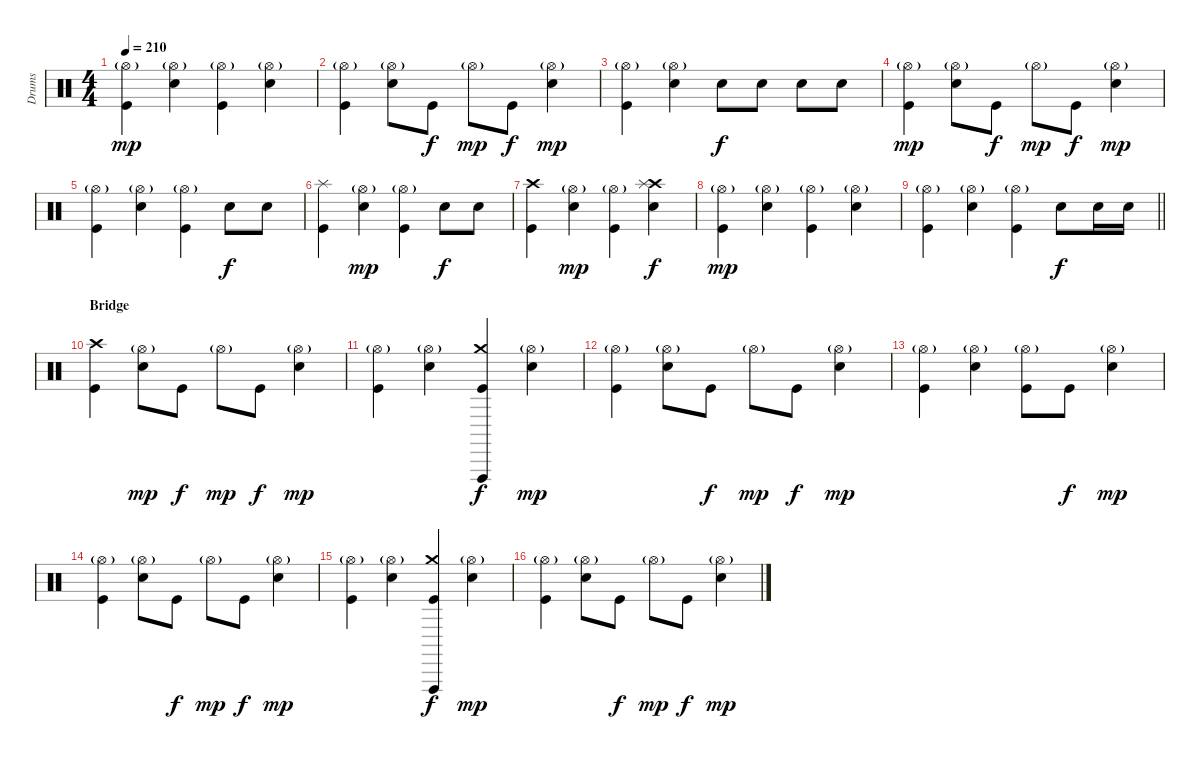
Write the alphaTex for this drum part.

\track ("Drums" "Drums") {instrument percussion}
\staff {score}
\articulation defaults
\ts (4 4)
\tempo 210
\clef neutral
\ks c
("Hi-Hat (open)"{g} "Kick (hit)").4{dy mp} ("Hi-Hat (open)"{g} "Snare (hit) 2").4 ("Hi-Hat (open)"{g} "Kick (hit)").4 ("Hi-Hat (open)"{g} "Snare (hit) 2").4 |
("Hi-Hat (open)"{g} "Kick (hit)").4 ("Hi-Hat (open)"{g} "Snare (hit) 2").8 "Kick (hit)".8{dy f} "Hi-Hat (open)"{g}.8{dy mp} "Kick (hit)".8{dy f} ("Hi-Hat (open)"{g} "Snare (hit) 2").4{dy mp} |
("Hi-Hat (open)"{g} "Kick (hit)").4 ("Hi-Hat (open)"{g} "Snare (hit) 2").4 "Snare (hit) 2".8{dy f} "Snare (hit) 2".8 "Snare (hit) 2".8 "Snare (hit) 2".8 |
("Hi-Hat (open)"{g} "Kick (hit)").4{dy mp} ("Hi-Hat (open)"{g} "Snare (hit) 2").8 "Kick (hit)".8{dy f} "Hi-Hat (open)"{g}.8{dy mp} "Kick (hit)".8{dy f} ("Hi-Hat (open)"{g} "Snare (hit) 2").4{dy mp} |
("Hi-Hat (open)"{g} "Kick (hit)").4 ("Hi-Hat (open)"{g} "Snare (hit) 2").4 ("Hi-Hat (open)"{g} "Kick (hit)").4 "Snare (hit) 2".8{dy f} "Snare (hit) 2".8 |
("Splash (hit)" "Kick (hit)").4 ("Hi-Hat (open)"{g} "Snare (hit) 2").4{dy mp} ("Hi-Hat (open)"{g} "Kick (hit)").4 "Snare (hit) 2".8{dy f} "Snare (hit) 2".8 |
("Crash high (hit)" "Kick (hit)").4 ("Hi-Hat (open)"{g} "Snare (hit) 2").4{dy mp} ("Hi-Hat (open)"{g} "Kick (hit)").4 ("Crash high (hit)" "Splash (hit)" "Snare (hit) 2").4{dy f} |
("Hi-Hat (open)"{g} "Kick (hit)").4{dy mp} ("Hi-Hat (open)"{g} "Snare (hit) 2").4 ("Hi-Hat (open)"{g} "Kick (hit)").4 ("Hi-Hat (open)"{g} "Snare (hit) 2").4 |
\barLineRight lightlight
("Hi-Hat (open)"{g} "Kick (hit)").4 ("Hi-Hat (open)"{g} "Snare (hit) 2").4 ("Hi-Hat (open)"{g} "Kick (hit)").4 "Snare (hit) 2".8{dy f} "Snare (hit) 2".16 "Snare (hit) 2".16 |
\section ("" "Bridge")
("Crash high (hit)" "Kick (hit)").4 ("Hi-Hat (open)"{g} "Snare (hit) 2").8{dy mp} "Kick (hit)".8{dy f} "Hi-Hat (open)"{g}.8{dy mp} "Kick (hit)".8{dy f} ("Hi-Hat (open)"{g} "Snare (hit) 2").4{dy mp} |
("Hi-Hat (open)"{g} "Kick (hit)").4 ("Hi-Hat (open)"{g} "Snare (hit) 2").4 ("Crash medium (hit)" "Vibraslap (hit)" "Kick (hit)").4{dy f} ("Hi-Hat (open)"{g} "Snare (hit) 2").4{dy mp} |
("Hi-Hat (open)"{g} "Kick (hit)").4 ("Hi-Hat (open)"{g} "Snare (hit) 2").8 "Kick (hit)".8{dy f} "Hi-Hat (open)"{g}.8{dy mp} "Kick (hit)".8{dy f} ("Hi-Hat (open)"{g} "Snare (hit) 2").4{dy mp} |
("Hi-Hat (open)"{g} "Kick (hit)").4 ("Hi-Hat (open)"{g} "Snare (hit) 2").4 ("Hi-Hat (open)"{g} "Kick (hit)").8 "Kick (hit)".8{dy f} ("Hi-Hat (open)"{g} "Snare (hit) 2").4{dy mp} |
("Hi-Hat (open)"{g} "Kick (hit)").4 ("Hi-Hat (open)"{g} "Snare (hit) 2").8 "Kick (hit)".8{dy f} "Hi-Hat (open)"{g}.8{dy mp} "Kick (hit)".8{dy f} ("Hi-Hat (open)"{g} "Snare (hit) 2").4{dy mp} |
("Hi-Hat (open)"{g} "Kick (hit)").4 ("Hi-Hat (open)"{g} "Snare (hit) 2").4 ("Crash medium (hit)" "Vibraslap (hit)" "Kick (hit)").4{dy f} ("Hi-Hat (open)"{g} "Snare (hit) 2").4{dy mp} |
("Hi-Hat (open)"{g} "Kick (hit)").4 ("Hi-Hat (open)"{g} "Snare (hit) 2").8 "Kick (hit)".8{dy f} "Hi-Hat (open)"{g}.8{dy mp} "Kick (hit)".8{dy f} ("Hi-Hat (open)"{g} "Snare (hit) 2").4{dy mp}
